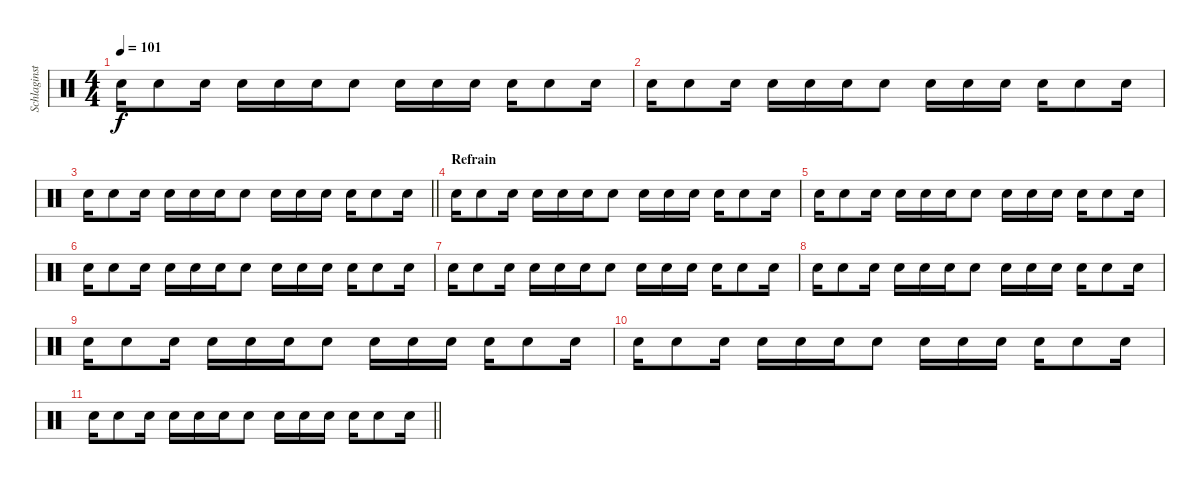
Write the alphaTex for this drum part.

\track ("Schlaginstrumente - Auswahl" "Schlaginst") {instrument percussion}
\staff {score}
\articulation defaults
\ts (4 4)
\tempo 101
\clef neutral
\ks c "Electric Snare (hit)".16{dy f} "Electric Snare (hit)".8 "Electric Snare (hit)".16 "Electric Snare (hit)".16 "Electric Snare (hit)".16 "Electric Snare (hit)".16 "Electric Snare (hit)".8 "Electric Snare (hit)".16 "Electric Snare (hit)".16 "Electric Snare (hit)".16 "Electric Snare (hit)".16 "Electric Snare (hit)".8 "Electric Snare (hit)".16
|
"Electric Snare (hit)".16 "Electric Snare (hit)".8 "Electric Snare (hit)".16 "Electric Snare (hit)".16 "Electric Snare (hit)".16 "Electric Snare (hit)".16 "Electric Snare (hit)".8 "Electric Snare (hit)".16 "Electric Snare (hit)".16 "Electric Snare (hit)".16 "Electric Snare (hit)".16 "Electric Snare (hit)".8 "Electric Snare (hit)".16 |
\barLineRight lightlight "Electric Snare (hit)".16 "Electric Snare (hit)".8 "Electric Snare (hit)".16 "Electric Snare (hit)".16 "Electric Snare (hit)".16 "Electric Snare (hit)".16 "Electric Snare (hit)".8 "Electric Snare (hit)".16 "Electric Snare (hit)".16 "Electric Snare (hit)".16 "Electric Snare (hit)".16 "Electric Snare (hit)".8 "Electric Snare (hit)".16
|
\section ("" "Refrain")
"Electric Snare (hit)".16{volume 4} "Electric Snare (hit)".8 "Electric Snare (hit)".16 "Electric Snare (hit)".16 "Electric Snare (hit)".16 "Electric Snare (hit)".16 "Electric Snare (hit)".8 "Electric Snare (hit)".16 "Electric Snare (hit)".16 "Electric Snare (hit)".16 "Electric Snare (hit)".16 "Electric Snare (hit)".8 "Electric Snare (hit)".16 |
"Electric Snare (hit)".16 "Electric Snare (hit)".8 "Electric Snare (hit)".16 "Electric Snare (hit)".16 "Electric Snare (hit)".16 "Electric Snare (hit)".16 "Electric Snare (hit)".8 "Electric Snare (hit)".16 "Electric Snare (hit)".16 "Electric Snare (hit)".16 "Electric Snare (hit)".16 "Electric Snare (hit)".8 "Electric Snare (hit)".16 |
"Electric Snare (hit)".16 "Electric Snare (hit)".8 "Electric Snare (hit)".16 "Electric Snare (hit)".16 "Electric Snare (hit)".16 "Electric Snare (hit)".16 "Electric Snare (hit)".8 "Electric Snare (hit)".16 "Electric Snare (hit)".16 "Electric Snare (hit)".16 "Electric Snare (hit)".16 "Electric Snare (hit)".8 "Electric Snare (hit)".16 |
"Electric Snare (hit)".16 "Electric Snare (hit)".8 "Electric Snare (hit)".16 "Electric Snare (hit)".16 "Electric Snare (hit)".16 "Electric Snare (hit)".16 "Electric Snare (hit)".8 "Electric Snare (hit)".16 "Electric Snare (hit)".16 "Electric Snare (hit)".16 "Electric Snare (hit)".16 "Electric Snare (hit)".8 "Electric Snare (hit)".16 |
"Electric Snare (hit)".16{volume 4} "Electric Snare (hit)".8 "Electric Snare (hit)".16 "Electric Snare (hit)".16 "Electric Snare (hit)".16 "Electric Snare (hit)".16 "Electric Snare (hit)".8 "Electric Snare (hit)".16 "Electric Snare (hit)".16 "Electric Snare (hit)".16 "Electric Snare (hit)".16 "Electric Snare (hit)".8 "Electric Snare (hit)".16 |
"Electric Snare (hit)".16 "Electric Snare (hit)".8 "Electric Snare (hit)".16 "Electric Snare (hit)".16 "Electric Snare (hit)".16 "Electric Snare (hit)".16 "Electric Snare (hit)".8 "Electric Snare (hit)".16 "Electric Snare (hit)".16 "Electric Snare (hit)".16 "Electric Snare (hit)".16 "Electric Snare (hit)".8 "Electric Snare (hit)".16 |
"Electric Snare (hit)".16 "Electric Snare (hit)".8 "Electric Snare (hit)".16 "Electric Snare (hit)".16 "Electric Snare (hit)".16 "Electric Snare (hit)".16 "Electric Snare (hit)".8 "Electric Snare (hit)".16 "Electric Snare (hit)".16 "Electric Snare (hit)".16 "Electric Snare (hit)".16 "Electric Snare (hit)".8 "Electric Snare (hit)".16 |
\barLineRight lightlight "Electric Snare (hit)".16 "Electric Snare (hit)".8 "Electric Snare (hit)".16 "Electric Snare (hit)".16 "Electric Snare (hit)".16 "Electric Snare (hit)".16 "Electric Snare (hit)".8 "Electric Snare (hit)".16 "Electric Snare (hit)".16 "Electric Snare (hit)".16 "Electric Snare (hit)".16 "Electric Snare (hit)".8 "Electric Snare (hit)".16
